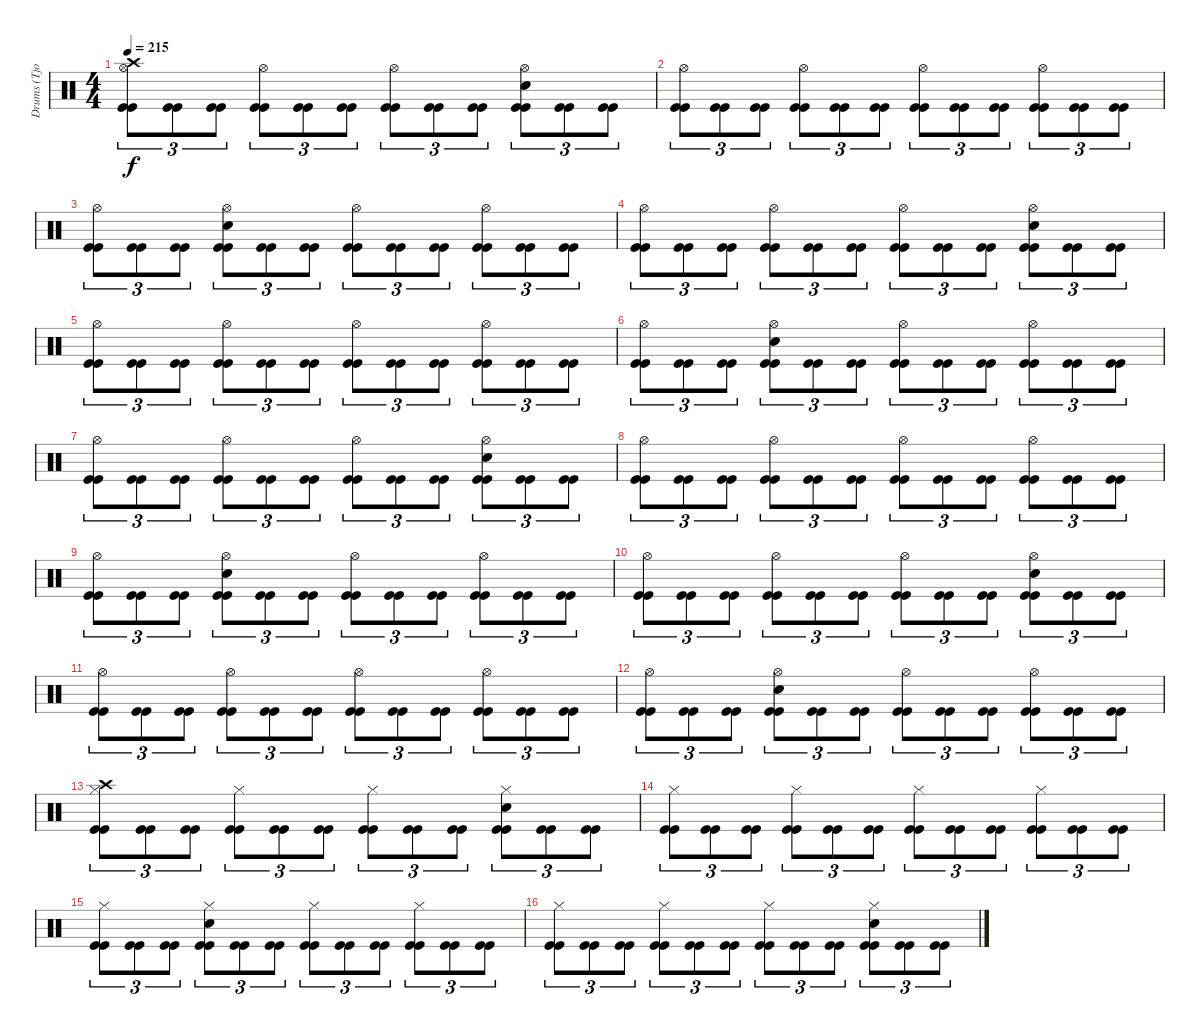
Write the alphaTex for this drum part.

\track ("Drums (Tjodalv)" "Drums (Tjo") {instrument percussion}
\staff {score}
\articulation defaults
\ts (4 4)
\tempo 215
\clef neutral
\ks c
("Crash high (hit)" "Hi-Hat (open)" "Kick (hit)" "Kick (hit)").8{tu (3 2) dy f} ("Kick (hit)" "Kick (hit)").8{tu (3 2)} ("Kick (hit)" "Kick (hit)").8{tu (3 2)} ("Hi-Hat (open)" "Kick (hit)" "Kick (hit)").8{tu (3 2)} ("Kick (hit)" "Kick (hit)").8{tu (3 2)} ("Kick (hit)" "Kick (hit)").8{tu (3 2)} ("Hi-Hat (open)" "Kick (hit)" "Kick (hit)").8{tu (3 2)} ("Kick (hit)" "Kick (hit)").8{tu (3 2)} ("Kick (hit)" "Kick (hit)").8{tu (3 2)} ("Snare (hit) 2" "Hi-Hat (open)" "Kick (hit)" "Kick (hit)").8{tu (3 2)} ("Kick (hit)" "Kick (hit)").8{tu (3 2)} ("Kick (hit)" "Kick (hit)").8{tu (3 2)} |
("Hi-Hat (open)" "Kick (hit)" "Kick (hit)").8{tu (3 2)} ("Kick (hit)" "Kick (hit)").8{tu (3 2)} ("Kick (hit)" "Kick (hit)").8{tu (3 2)} ("Hi-Hat (open)" "Kick (hit)" "Kick (hit)").8{tu (3 2)} ("Kick (hit)" "Kick (hit)").8{tu (3 2)} ("Kick (hit)" "Kick (hit)").8{tu (3 2)} ("Hi-Hat (open)" "Kick (hit)" "Kick (hit)").8{tu (3 2)} ("Kick (hit)" "Kick (hit)").8{tu (3 2)} ("Kick (hit)" "Kick (hit)").8{tu (3 2)} ("Hi-Hat (open)" "Kick (hit)" "Kick (hit)").8{tu (3 2)} ("Kick (hit)" "Kick (hit)").8{tu (3 2)} ("Kick (hit)" "Kick (hit)").8{tu (3 2)} |
("Hi-Hat (open)" "Kick (hit)" "Kick (hit)").8{tu (3 2)} ("Kick (hit)" "Kick (hit)").8{tu (3 2)} ("Kick (hit)" "Kick (hit)").8{tu (3 2)} ("Snare (hit) 2" "Hi-Hat (open)" "Kick (hit)" "Kick (hit)").8{tu (3 2)} ("Kick (hit)" "Kick (hit)").8{tu (3 2)} ("Kick (hit)" "Kick (hit)").8{tu (3 2)} ("Hi-Hat (open)" "Kick (hit)" "Kick (hit)").8{tu (3 2)} ("Kick (hit)" "Kick (hit)").8{tu (3 2)} ("Kick (hit)" "Kick (hit)").8{tu (3 2)} ("Hi-Hat (open)" "Kick (hit)" "Kick (hit)").8{tu (3 2)} ("Kick (hit)" "Kick (hit)").8{tu (3 2)} ("Kick (hit)" "Kick (hit)").8{tu (3 2)} |
("Hi-Hat (open)" "Kick (hit)" "Kick (hit)").8{tu (3 2)} ("Kick (hit)" "Kick (hit)").8{tu (3 2)} ("Kick (hit)" "Kick (hit)").8{tu (3 2)} ("Hi-Hat (open)" "Kick (hit)" "Kick (hit)").8{tu (3 2)} ("Kick (hit)" "Kick (hit)").8{tu (3 2)} ("Kick (hit)" "Kick (hit)").8{tu (3 2)} ("Hi-Hat (open)" "Kick (hit)" "Kick (hit)").8{tu (3 2)} ("Kick (hit)" "Kick (hit)").8{tu (3 2)} ("Kick (hit)" "Kick (hit)").8{tu (3 2)} ("Snare (hit) 2" "Hi-Hat (open)" "Kick (hit)" "Kick (hit)").8{tu (3 2)} ("Kick (hit)" "Kick (hit)").8{tu (3 2)} ("Kick (hit)" "Kick (hit)").8{tu (3 2)} |
("Hi-Hat (open)" "Kick (hit)" "Kick (hit)").8{tu (3 2)} ("Kick (hit)" "Kick (hit)").8{tu (3 2)} ("Kick (hit)" "Kick (hit)").8{tu (3 2)} ("Hi-Hat (open)" "Kick (hit)" "Kick (hit)").8{tu (3 2)} ("Kick (hit)" "Kick (hit)").8{tu (3 2)} ("Kick (hit)" "Kick (hit)").8{tu (3 2)} ("Hi-Hat (open)" "Kick (hit)" "Kick (hit)").8{tu (3 2)} ("Kick (hit)" "Kick (hit)").8{tu (3 2)} ("Kick (hit)" "Kick (hit)").8{tu (3 2)} ("Hi-Hat (open)" "Kick (hit)" "Kick (hit)").8{tu (3 2)} ("Kick (hit)" "Kick (hit)").8{tu (3 2)} ("Kick (hit)" "Kick (hit)").8{tu (3 2)} |
("Hi-Hat (open)" "Kick (hit)" "Kick (hit)").8{tu (3 2)} ("Kick (hit)" "Kick (hit)").8{tu (3 2)} ("Kick (hit)" "Kick (hit)").8{tu (3 2)} ("Snare (hit) 2" "Hi-Hat (open)" "Kick (hit)" "Kick (hit)").8{tu (3 2)} ("Kick (hit)" "Kick (hit)").8{tu (3 2)} ("Kick (hit)" "Kick (hit)").8{tu (3 2)} ("Hi-Hat (open)" "Kick (hit)" "Kick (hit)").8{tu (3 2)} ("Kick (hit)" "Kick (hit)").8{tu (3 2)} ("Kick (hit)" "Kick (hit)").8{tu (3 2)} ("Hi-Hat (open)" "Kick (hit)" "Kick (hit)").8{tu (3 2)} ("Kick (hit)" "Kick (hit)").8{tu (3 2)} ("Kick (hit)" "Kick (hit)").8{tu (3 2)} |
("Hi-Hat (open)" "Kick (hit)" "Kick (hit)").8{tu (3 2)} ("Kick (hit)" "Kick (hit)").8{tu (3 2)} ("Kick (hit)" "Kick (hit)").8{tu (3 2)} ("Hi-Hat (open)" "Kick (hit)" "Kick (hit)").8{tu (3 2)} ("Kick (hit)" "Kick (hit)").8{tu (3 2)} ("Kick (hit)" "Kick (hit)").8{tu (3 2)} ("Hi-Hat (open)" "Kick (hit)" "Kick (hit)").8{tu (3 2)} ("Kick (hit)" "Kick (hit)").8{tu (3 2)} ("Kick (hit)" "Kick (hit)").8{tu (3 2)} ("Snare (hit) 2" "Hi-Hat (open)" "Kick (hit)" "Kick (hit)").8{tu (3 2)} ("Kick (hit)" "Kick (hit)").8{tu (3 2)} ("Kick (hit)" "Kick (hit)").8{tu (3 2)} |
("Hi-Hat (open)" "Kick (hit)" "Kick (hit)").8{tu (3 2)} ("Kick (hit)" "Kick (hit)").8{tu (3 2)} ("Kick (hit)" "Kick (hit)").8{tu (3 2)} ("Hi-Hat (open)" "Kick (hit)" "Kick (hit)").8{tu (3 2)} ("Kick (hit)" "Kick (hit)").8{tu (3 2)} ("Kick (hit)" "Kick (hit)").8{tu (3 2)} ("Hi-Hat (open)" "Kick (hit)" "Kick (hit)").8{tu (3 2)} ("Kick (hit)" "Kick (hit)").8{tu (3 2)} ("Kick (hit)" "Kick (hit)").8{tu (3 2)} ("Hi-Hat (open)" "Kick (hit)" "Kick (hit)").8{tu (3 2)} ("Kick (hit)" "Kick (hit)").8{tu (3 2)} ("Kick (hit)" "Kick (hit)").8{tu (3 2)} |
("Hi-Hat (open)" "Kick (hit)" "Kick (hit)").8{tu (3 2)} ("Kick (hit)" "Kick (hit)").8{tu (3 2)} ("Kick (hit)" "Kick (hit)").8{tu (3 2)} ("Snare (hit) 2" "Hi-Hat (open)" "Kick (hit)" "Kick (hit)").8{tu (3 2)} ("Kick (hit)" "Kick (hit)").8{tu (3 2)} ("Kick (hit)" "Kick (hit)").8{tu (3 2)} ("Hi-Hat (open)" "Kick (hit)" "Kick (hit)").8{tu (3 2)} ("Kick (hit)" "Kick (hit)").8{tu (3 2)} ("Kick (hit)" "Kick (hit)").8{tu (3 2)} ("Hi-Hat (open)" "Kick (hit)" "Kick (hit)").8{tu (3 2)} ("Kick (hit)" "Kick (hit)").8{tu (3 2)} ("Kick (hit)" "Kick (hit)").8{tu (3 2)} |
("Hi-Hat (open)" "Kick (hit)" "Kick (hit)").8{tu (3 2)} ("Kick (hit)" "Kick (hit)").8{tu (3 2)} ("Kick (hit)" "Kick (hit)").8{tu (3 2)} ("Hi-Hat (open)" "Kick (hit)" "Kick (hit)").8{tu (3 2)} ("Kick (hit)" "Kick (hit)").8{tu (3 2)} ("Kick (hit)" "Kick (hit)").8{tu (3 2)} ("Hi-Hat (open)" "Kick (hit)" "Kick (hit)").8{tu (3 2)} ("Kick (hit)" "Kick (hit)").8{tu (3 2)} ("Kick (hit)" "Kick (hit)").8{tu (3 2)} ("Snare (hit) 2" "Hi-Hat (open)" "Kick (hit)" "Kick (hit)").8{tu (3 2)} ("Kick (hit)" "Kick (hit)").8{tu (3 2)} ("Kick (hit)" "Kick (hit)").8{tu (3 2)} |
("Hi-Hat (open)" "Kick (hit)" "Kick (hit)").8{tu (3 2)} ("Kick (hit)" "Kick (hit)").8{tu (3 2)} ("Kick (hit)" "Kick (hit)").8{tu (3 2)} ("Hi-Hat (open)" "Kick (hit)" "Kick (hit)").8{tu (3 2)} ("Kick (hit)" "Kick (hit)").8{tu (3 2)} ("Kick (hit)" "Kick (hit)").8{tu (3 2)} ("Hi-Hat (open)" "Kick (hit)" "Kick (hit)").8{tu (3 2)} ("Kick (hit)" "Kick (hit)").8{tu (3 2)} ("Kick (hit)" "Kick (hit)").8{tu (3 2)} ("Hi-Hat (open)" "Kick (hit)" "Kick (hit)").8{tu (3 2)} ("Kick (hit)" "Kick (hit)").8{tu (3 2)} ("Kick (hit)" "Kick (hit)").8{tu (3 2)} |
("Hi-Hat (open)" "Kick (hit)" "Kick (hit)").8{tu (3 2)} ("Kick (hit)" "Kick (hit)").8{tu (3 2)} ("Kick (hit)" "Kick (hit)").8{tu (3 2)} ("Snare (hit) 2" "Hi-Hat (open)" "Kick (hit)" "Kick (hit)").8{tu (3 2)} ("Kick (hit)" "Kick (hit)").8{tu (3 2)} ("Kick (hit)" "Kick (hit)").8{tu (3 2)} ("Hi-Hat (open)" "Kick (hit)" "Kick (hit)").8{tu (3 2)} ("Kick (hit)" "Kick (hit)").8{tu (3 2)} ("Kick (hit)" "Kick (hit)").8{tu (3 2)} ("Hi-Hat (open)" "Kick (hit)" "Kick (hit)").8{tu (3 2)} ("Kick (hit)" "Kick (hit)").8{tu (3 2)} ("Kick (hit)" "Kick (hit)").8{tu (3 2)} |
("Crash high (hit)" "Hi-Hat (closed)" "Kick (hit)" "Kick (hit)").8{tu (3 2)} ("Kick (hit)" "Kick (hit)").8{tu (3 2)} ("Kick (hit)" "Kick (hit)").8{tu (3 2)} ("Hi-Hat (closed)" "Kick (hit)" "Kick (hit)").8{tu (3 2)} ("Kick (hit)" "Kick (hit)").8{tu (3 2)} ("Kick (hit)" "Kick (hit)").8{tu (3 2)} ("Hi-Hat (closed)" "Kick (hit)" "Kick (hit)").8{tu (3 2)} ("Kick (hit)" "Kick (hit)").8{tu (3 2)} ("Kick (hit)" "Kick (hit)").8{tu (3 2)} ("Snare (hit) 2" "Hi-Hat (closed)" "Kick (hit)" "Kick (hit)").8{tu (3 2)} ("Kick (hit)" "Kick (hit)").8{tu (3 2)} ("Kick (hit)" "Kick (hit)").8{tu (3 2)} |
("Hi-Hat (closed)" "Kick (hit)" "Kick (hit)").8{tu (3 2)} ("Kick (hit)" "Kick (hit)").8{tu (3 2)} ("Kick (hit)" "Kick (hit)").8{tu (3 2)} ("Hi-Hat (closed)" "Kick (hit)" "Kick (hit)").8{tu (3 2)} ("Kick (hit)" "Kick (hit)").8{tu (3 2)} ("Kick (hit)" "Kick (hit)").8{tu (3 2)} ("Hi-Hat (closed)" "Kick (hit)" "Kick (hit)").8{tu (3 2)} ("Kick (hit)" "Kick (hit)").8{tu (3 2)} ("Kick (hit)" "Kick (hit)").8{tu (3 2)} ("Hi-Hat (closed)" "Kick (hit)" "Kick (hit)").8{tu (3 2)} ("Kick (hit)" "Kick (hit)").8{tu (3 2)} ("Kick (hit)" "Kick (hit)").8{tu (3 2)} |
("Hi-Hat (closed)" "Kick (hit)" "Kick (hit)").8{tu (3 2)} ("Kick (hit)" "Kick (hit)").8{tu (3 2)} ("Kick (hit)" "Kick (hit)").8{tu (3 2)} ("Snare (hit) 2" "Hi-Hat (closed)" "Kick (hit)" "Kick (hit)").8{tu (3 2)} ("Kick (hit)" "Kick (hit)").8{tu (3 2)} ("Kick (hit)" "Kick (hit)").8{tu (3 2)} ("Hi-Hat (closed)" "Kick (hit)" "Kick (hit)").8{tu (3 2)} ("Kick (hit)" "Kick (hit)").8{tu (3 2)} ("Kick (hit)" "Kick (hit)").8{tu (3 2)} ("Hi-Hat (closed)" "Kick (hit)" "Kick (hit)").8{tu (3 2)} ("Kick (hit)" "Kick (hit)").8{tu (3 2)} ("Kick (hit)" "Kick (hit)").8{tu (3 2)} |
("Hi-Hat (closed)" "Kick (hit)" "Kick (hit)").8{tu (3 2)} ("Kick (hit)" "Kick (hit)").8{tu (3 2)} ("Kick (hit)" "Kick (hit)").8{tu (3 2)} ("Hi-Hat (closed)" "Kick (hit)" "Kick (hit)").8{tu (3 2)} ("Kick (hit)" "Kick (hit)").8{tu (3 2)} ("Kick (hit)" "Kick (hit)").8{tu (3 2)} ("Hi-Hat (closed)" "Kick (hit)" "Kick (hit)").8{tu (3 2)} ("Kick (hit)" "Kick (hit)").8{tu (3 2)} ("Kick (hit)" "Kick (hit)").8{tu (3 2)} ("Snare (hit) 2" "Hi-Hat (closed)" "Kick (hit)" "Kick (hit)").8{tu (3 2)} ("Kick (hit)" "Kick (hit)").8{tu (3 2)} ("Kick (hit)" "Kick (hit)").8{tu (3 2)}
